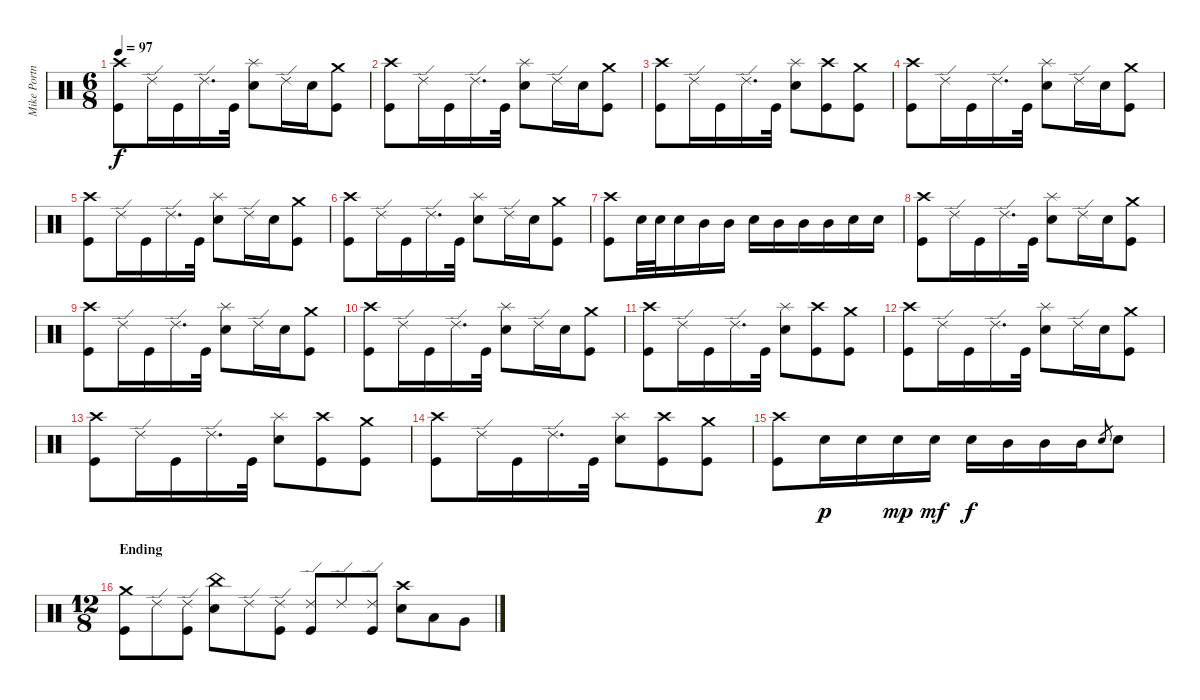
\track ("Mike Portnoy" "Mike Portn") {instrument percussion}
\staff {score}
\articulation defaults
\ts (6 8)
\tempo 97
\clef neutral
\ks c
("Crash high (hit)" "Kick (hit)").8{dy f} "Ride (edge) 2".16 "Kick (hit)".16 "Ride (edge) 2".16{d} "Kick (hit)".32 ("Splash (hit)" "Snare (hit) 2").8 "Ride (edge) 2".16 "Snare (hit) 2".16 ("Crash medium (hit)" "Kick (hit)").8 |
("Crash high (hit)" "Kick (hit)").8 "Ride (edge) 2".16 "Kick (hit)".16 "Ride (edge) 2".16{d} "Kick (hit)".32 ("Splash (hit)" "Snare (hit) 2").8 "Ride (edge) 2".16 "Snare (hit) 2".16 ("Crash medium (hit)" "Kick (hit)").8 |
("Crash high (hit)" "Kick (hit)").8 "Ride (edge) 2".16 "Kick (hit)".16 "Ride (edge) 2".16{d} "Kick (hit)".32 ("Splash (hit)" "Snare (hit) 2").8 ("Crash high (hit)" "Kick (hit)").8 ("Crash medium (hit)" "Kick (hit)").8 |
("Crash high (hit)" "Kick (hit)").8 "Ride (edge) 2".16 "Kick (hit)".16 "Ride (edge) 2".16{d} "Kick (hit)".32 ("Splash (hit)" "Snare (hit) 2").8 "Ride (edge) 2".16 "Snare (hit) 2".16 ("Crash medium (hit)" "Kick (hit)").8 |
("Crash high (hit)" "Kick (hit)").8 "Ride (edge) 2".16 "Kick (hit)".16 "Ride (edge) 2".16{d} "Kick (hit)".32 ("Splash (hit)" "Snare (hit) 2").8 "Ride (edge) 2".16 "Snare (hit) 2".16 ("Crash medium (hit)" "Kick (hit)").8 |
("Crash high (hit)" "Kick (hit)").8 "Ride (edge) 2".16 "Kick (hit)".16 "Ride (edge) 2".16{d} "Kick (hit)".32 ("Splash (hit)" "Snare (hit) 2").8 "Ride (edge) 2".16 "Snare (hit) 2".16 ("Crash medium (hit)" "Kick (hit)").8 |
("Crash high (hit)" "Kick (hit)").8 "Snare (hit) 2".32 "Snare (hit) 2".32 "Snare (hit) 2".16 "Mid Tom (hit)".16 "Mid Tom (hit)".16 "Snare (hit) 2".16 "Mid Tom (hit)".16 "Mid Tom (hit)".16 "Mid Tom (hit)".16 "Snare (hit) 2".16 "Snare (hit) 2".16 |
("Crash high (hit)" "Kick (hit)").8 "Ride (edge) 2".16 "Kick (hit)".16 "Ride (edge) 2".16{d} "Kick (hit)".32 ("Splash (hit)" "Snare (hit) 2").8 "Ride (edge) 2".16 "Snare (hit) 2".16 ("Crash medium (hit)" "Kick (hit)").8 |
("Crash high (hit)" "Kick (hit)").8 "Ride (edge) 2".16 "Kick (hit)".16 "Ride (edge) 2".16{d} "Kick (hit)".32 ("Splash (hit)" "Snare (hit) 2").8 "Ride (edge) 2".16 "Snare (hit) 2".16 ("Crash medium (hit)" "Kick (hit)").8 |
("Crash high (hit)" "Kick (hit)").8 "Ride (edge) 2".16 "Kick (hit)".16 "Ride (edge) 2".16{d} "Kick (hit)".32 ("Splash (hit)" "Snare (hit) 2").8 "Ride (edge) 2".16 "Snare (hit) 2".16 ("Crash medium (hit)" "Kick (hit)").8 |
("Crash high (hit)" "Kick (hit)").8 "Ride (edge) 2".16 "Kick (hit)".16 "Ride (edge) 2".16{d} "Kick (hit)".32 ("Splash (hit)" "Snare (hit) 2").8 ("Crash high (hit)" "Kick (hit)").8 ("Crash medium (hit)" "Kick (hit)").8 |
("Crash high (hit)" "Kick (hit)").8 "Ride (edge) 2".16 "Kick (hit)".16 "Ride (edge) 2".16{d} "Kick (hit)".32 ("Splash (hit)" "Snare (hit) 2").8 "Ride (edge) 2".16 "Snare (hit) 2".16 ("Crash medium (hit)" "Kick (hit)").8 |
("Crash high (hit)" "Kick (hit)").8 "Ride (edge) 2".16 "Kick (hit)".16 "Ride (edge) 2".16{d} "Kick (hit)".32 ("Splash (hit)" "Snare (hit) 2").8 ("Crash high (hit)" "Kick (hit)").8 ("Crash medium (hit)" "Kick (hit)").8 |
("Crash high (hit)" "Kick (hit)").8 "Ride (edge) 2".16 "Kick (hit)".16 "Ride (edge) 2".16{d} "Kick (hit)".32 ("Splash (hit)" "Snare (hit) 2").8 ("Crash high (hit)" "Kick (hit)").8 ("Crash medium (hit)" "Kick (hit)").8 |
("Crash high (hit)" "Kick (hit)").8 "Snare (hit) 2".16{dy p} "Snare (hit) 2".16 "Snare (hit) 2".16{dy mp} "Snare (hit) 2".16{dy mf} "Snare (hit) 2".16{dy f} "Mid Tom (hit)".16 "Mid Tom (hit)".16 "Mid Tom (hit)".16 "Snare (hit) 2".8{gr} "Snare (hit) 2".8 |
\ts (12 8)
\section ("" "Ending")
("Crash medium (hit)" "Kick (hit)").8 "Ride (edge) 2".8 ("Ride (edge) 2" "Kick (hit)").8 ("China (hit)" "Snare (hit) 2").8 "Ride (edge) 2".8 ("Ride (edge) 2" "Kick (hit)").8 ("Ride (edge) 2" "Kick (hit)").8 "Ride (edge) 2".8 ("Ride (edge) 2" "Kick (hit)").8 ("Crash high (hit)" "Snare (hit) 2").8 "Low Tom (hit)".8 "Very Low Tom (hit)".8
